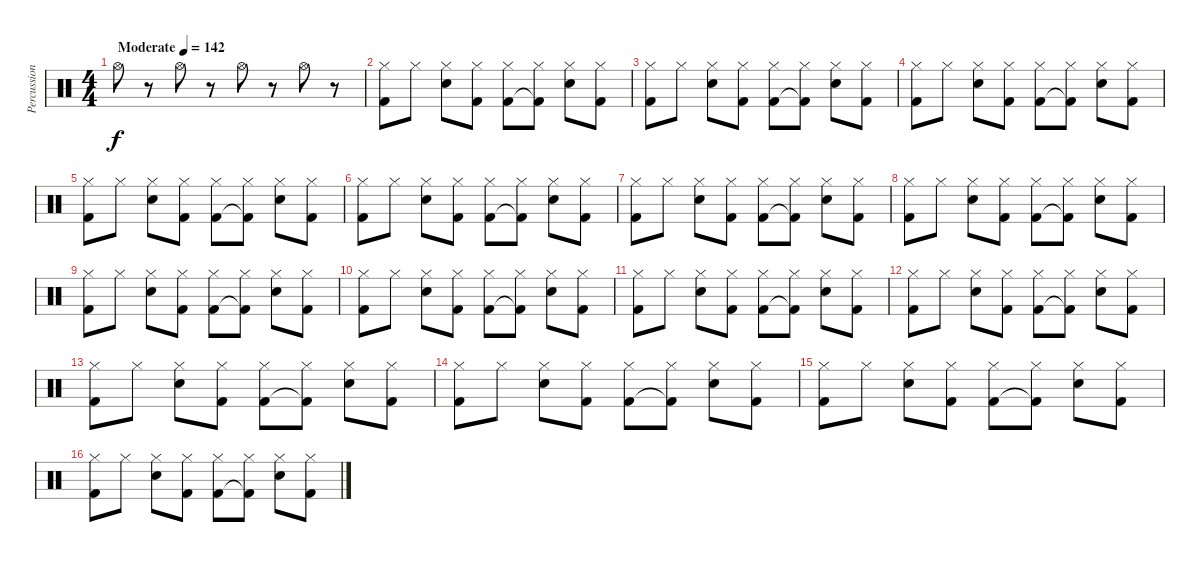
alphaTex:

\track ("Percussion" "Percussion") {instrument percussion}
\staff {score}
\articulation defaults
\ts (4 4)
\tempo (142 "Moderate")
\clef neutral
\ks c "Hi-Hat (open)".8{dy f}
r.8 "Hi-Hat (open)".8 r.8 "Hi-Hat (open)".8 r.8 "Hi-Hat (open)".8 r.8 |
("Hi-Hat (closed)" "Kick (hit) 2").8 "Hi-Hat (closed)".8 ("Hi-Hat (closed)" "Snare (hit) 2").8 ("Hi-Hat (closed)" "Kick (hit) 2").8 ("Hi-Hat (closed)" "Kick (hit) 2").8 ("Hi-Hat (closed)" "Kick (hit) 2"{t}).8 ("Hi-Hat (closed)" "Snare (hit) 2").8 ("Hi-Hat (closed)" "Kick (hit) 2").8 |
("Hi-Hat (closed)" "Kick (hit) 2").8 "Hi-Hat (closed)".8 ("Hi-Hat (closed)" "Snare (hit) 2").8 ("Hi-Hat (closed)" "Kick (hit) 2").8 ("Hi-Hat (closed)" "Kick (hit) 2").8 ("Hi-Hat (closed)" "Kick (hit) 2"{t}).8 ("Hi-Hat (closed)" "Snare (hit) 2").8 ("Hi-Hat (closed)" "Kick (hit) 2").8 |
("Hi-Hat (closed)" "Kick (hit) 2").8 "Hi-Hat (closed)".8 ("Hi-Hat (closed)" "Snare (hit) 2").8 ("Hi-Hat (closed)" "Kick (hit) 2").8 ("Hi-Hat (closed)" "Kick (hit) 2").8 ("Hi-Hat (closed)" "Kick (hit) 2"{t}).8 ("Hi-Hat (closed)" "Snare (hit) 2").8 ("Hi-Hat (closed)" "Kick (hit) 2").8 |
("Hi-Hat (closed)" "Kick (hit) 2").8 "Hi-Hat (closed)".8 ("Hi-Hat (closed)" "Snare (hit) 2").8 ("Hi-Hat (closed)" "Kick (hit) 2").8 ("Hi-Hat (closed)" "Kick (hit) 2").8 ("Hi-Hat (closed)" "Kick (hit) 2"{t}).8 ("Hi-Hat (closed)" "Snare (hit) 2").8 ("Hi-Hat (closed)" "Kick (hit) 2").8 |
("Hi-Hat (closed)" "Kick (hit) 2").8 "Hi-Hat (closed)".8 ("Hi-Hat (closed)" "Snare (hit) 2").8 ("Hi-Hat (closed)" "Kick (hit) 2").8 ("Hi-Hat (closed)" "Kick (hit) 2").8 ("Hi-Hat (closed)" "Kick (hit) 2"{t}).8 ("Hi-Hat (closed)" "Snare (hit) 2").8 ("Hi-Hat (closed)" "Kick (hit) 2").8 |
("Hi-Hat (closed)" "Kick (hit) 2").8 "Hi-Hat (closed)".8 ("Hi-Hat (closed)" "Snare (hit) 2").8 ("Hi-Hat (closed)" "Kick (hit) 2").8 ("Hi-Hat (closed)" "Kick (hit) 2").8 ("Hi-Hat (closed)" "Kick (hit) 2"{t}).8 ("Hi-Hat (closed)" "Snare (hit) 2").8 ("Hi-Hat (closed)" "Kick (hit) 2").8 |
("Hi-Hat (closed)" "Kick (hit) 2").8 "Hi-Hat (closed)".8 ("Hi-Hat (closed)" "Snare (hit) 2").8 ("Hi-Hat (closed)" "Kick (hit) 2").8 ("Hi-Hat (closed)" "Kick (hit) 2").8 ("Hi-Hat (closed)" "Kick (hit) 2"{t}).8 ("Hi-Hat (closed)" "Snare (hit) 2").8 ("Hi-Hat (closed)" "Kick (hit) 2").8 |
("Hi-Hat (closed)" "Kick (hit) 2").8 "Hi-Hat (closed)".8 ("Hi-Hat (closed)" "Snare (hit) 2").8 ("Hi-Hat (closed)" "Kick (hit) 2").8 ("Hi-Hat (closed)" "Kick (hit) 2").8 ("Hi-Hat (closed)" "Kick (hit) 2"{t}).8 ("Hi-Hat (closed)" "Snare (hit) 2").8 ("Hi-Hat (closed)" "Kick (hit) 2").8 |
("Hi-Hat (closed)" "Kick (hit) 2").8 "Hi-Hat (closed)".8 ("Hi-Hat (closed)" "Snare (hit) 2").8 ("Hi-Hat (closed)" "Kick (hit) 2").8 ("Hi-Hat (closed)" "Kick (hit) 2").8 ("Hi-Hat (closed)" "Kick (hit) 2"{t}).8 ("Hi-Hat (closed)" "Snare (hit) 2").8 ("Hi-Hat (closed)" "Kick (hit) 2").8 |
("Hi-Hat (closed)" "Kick (hit) 2").8 "Hi-Hat (closed)".8 ("Hi-Hat (closed)" "Snare (hit) 2").8 ("Hi-Hat (closed)" "Kick (hit) 2").8 ("Hi-Hat (closed)" "Kick (hit) 2").8 ("Hi-Hat (closed)" "Kick (hit) 2"{t}).8 ("Hi-Hat (closed)" "Snare (hit) 2").8 ("Hi-Hat (closed)" "Kick (hit) 2").8 |
("Hi-Hat (closed)" "Kick (hit) 2").8 "Hi-Hat (closed)".8 ("Hi-Hat (closed)" "Snare (hit) 2").8 ("Hi-Hat (closed)" "Kick (hit) 2").8 ("Hi-Hat (closed)" "Kick (hit) 2").8 ("Hi-Hat (closed)" "Kick (hit) 2"{t}).8 ("Hi-Hat (closed)" "Snare (hit) 2").8 ("Hi-Hat (closed)" "Kick (hit) 2").8 |
("Hi-Hat (closed)" "Kick (hit) 2").8 "Hi-Hat (closed)".8 ("Hi-Hat (closed)" "Snare (hit) 2").8 ("Hi-Hat (closed)" "Kick (hit) 2").8 ("Hi-Hat (closed)" "Kick (hit) 2").8 ("Hi-Hat (closed)" "Kick (hit) 2"{t}).8 ("Hi-Hat (closed)" "Snare (hit) 2").8 ("Hi-Hat (closed)" "Kick (hit) 2").8 |
("Hi-Hat (closed)" "Kick (hit) 2").8 "Hi-Hat (closed)".8 ("Hi-Hat (closed)" "Snare (hit) 2").8 ("Hi-Hat (closed)" "Kick (hit) 2").8 ("Hi-Hat (closed)" "Kick (hit) 2").8 ("Hi-Hat (closed)" "Kick (hit) 2"{t}).8 ("Hi-Hat (closed)" "Snare (hit) 2").8 ("Hi-Hat (closed)" "Kick (hit) 2").8 |
("Hi-Hat (closed)" "Kick (hit) 2").8 "Hi-Hat (closed)".8 ("Hi-Hat (closed)" "Snare (hit) 2").8 ("Hi-Hat (closed)" "Kick (hit) 2").8 ("Hi-Hat (closed)" "Kick (hit) 2").8 ("Hi-Hat (closed)" "Kick (hit) 2"{t}).8 ("Hi-Hat (closed)" "Snare (hit) 2").8 ("Hi-Hat (closed)" "Kick (hit) 2").8 |
("Hi-Hat (closed)" "Kick (hit) 2").8 "Hi-Hat (closed)".8 ("Hi-Hat (closed)" "Snare (hit) 2").8 ("Hi-Hat (closed)" "Kick (hit) 2").8 ("Hi-Hat (closed)" "Kick (hit) 2").8 ("Hi-Hat (closed)" "Kick (hit) 2"{t}).8 ("Hi-Hat (closed)" "Snare (hit) 2").8 ("Hi-Hat (closed)" "Kick (hit) 2").8
